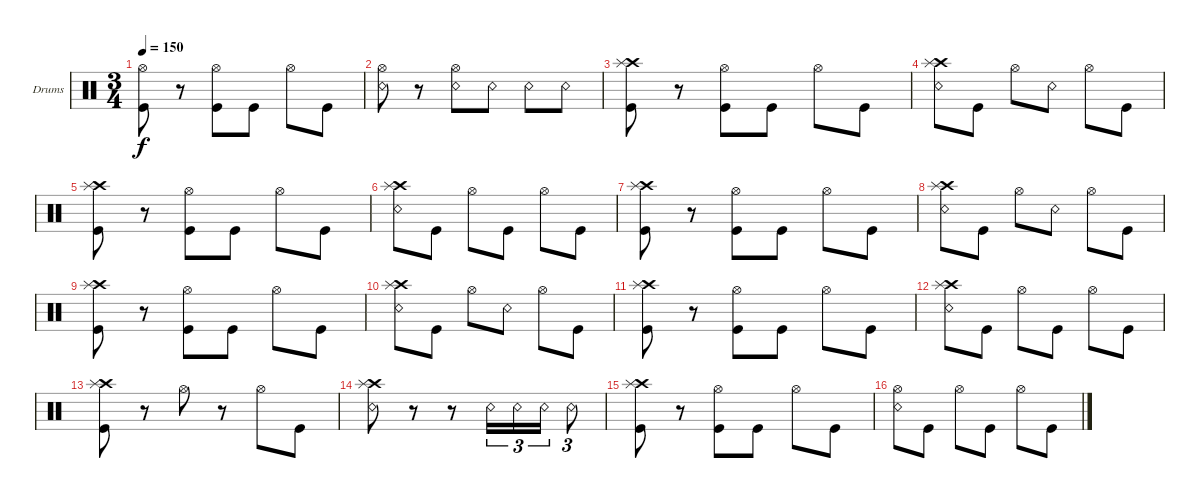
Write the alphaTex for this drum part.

\defaultSystemsLayout 4
\bracketExtendMode groupsimilarinstruments
\firstSystemTrackNameOrientation horizontal
\otherSystemsTrackNameOrientation horizontal
\track ("Scott" "Drums") {instrument percussion}
\staff {score}
\articulation defaults
\ts (3 4)
\tempo 150
\clef neutral
\scale
0.333333
\ks c
("Kick (hit)" "Hi-Hat (open)").8{dy f} r.8 ("Kick (hit)" "Hi-Hat (open)").8 "Kick (hit)".8 "Hi-Hat (open)".8 "Kick (hit)".8 |
\scale
0.333333 ("Snare (rim shot)" "Hi-Hat (open)").8 r.8 ("Snare (rim shot)" "Hi-Hat (open)").8 "Snare (rim shot)".8 "Snare (rim shot)".8 "Snare (rim shot)".8 |
\scale
0.333333 ("Kick (hit)" "Crash high (hit)" "Splash (hit)").8 r.8 ("Kick (hit)" "Hi-Hat (open)").8 "Kick (hit)".8 "Hi-Hat (open)".8 "Kick (hit)".8 |
\scale
0.333333 ("Snare (rim shot)" "Crash high (hit)" "Splash (hit)").8 "Kick (hit)".8 "Hi-Hat (open)".8 "Snare (rim shot)".8 "Hi-Hat (open)".8 "Kick (hit)".8 |
\scale
0.333333 ("Kick (hit)" "Crash high (hit)" "Splash (hit)").8 r.8 ("Kick (hit)" "Hi-Hat (open)").8 "Kick (hit)".8 "Hi-Hat (open)".8 "Kick (hit)".8 |
\scale
0.333333 ("Snare (rim shot)" "Crash high (hit)" "Splash (hit)").8 "Kick (hit)".8 "Hi-Hat (open)".8 "Kick (hit)".8 "Hi-Hat (open)".8 "Kick (hit)".8 |
\scale
0.333333 ("Kick (hit)" "Crash high (hit)" "Splash (hit)").8 r.8 ("Kick (hit)" "Hi-Hat (open)").8 "Kick (hit)".8 "Hi-Hat (open)".8 "Kick (hit)".8 |
\scale
0.333333 ("Snare (rim shot)" "Crash high (hit)" "Splash (hit)").8 "Kick (hit)".8 "Hi-Hat (open)".8 "Snare (rim shot)".8 "Hi-Hat (open)".8 "Kick (hit)".8 |
\scale
0.333333 ("Kick (hit)" "Crash high (hit)" "Splash (hit)").8 r.8 ("Kick (hit)" "Hi-Hat (open)").8 "Kick (hit)".8 "Hi-Hat (open)".8 "Kick (hit)".8 |
\scale
0.333333 ("Snare (rim shot)" "Crash high (hit)" "Splash (hit)").8 "Kick (hit)".8 "Hi-Hat (open)".8 "Snare (rim shot)".8 "Hi-Hat (open)".8 "Kick (hit)".8 |
\scale
0.333333 ("Kick (hit)" "Crash high (hit)" "Splash (hit)").8 r.8 ("Kick (hit)" "Hi-Hat (open)").8 "Kick (hit)".8 "Hi-Hat (open)".8 "Kick (hit)".8 |
\scale
0.333333 ("Snare (rim shot)" "Crash high (hit)" "Splash (hit)").8 "Kick (hit)".8 "Hi-Hat (open)".8 "Kick (hit)".8 "Hi-Hat (open)".8 "Kick (hit)".8 |
\scale
0.333333 ("Kick (hit)" "Crash high (hit)" "Splash (hit)").8 r.8 "Hi-Hat (open)".8 r.8 "Hi-Hat (open)".8 "Kick (hit)".8 |
\scale
0.333333 ("Snare (rim shot)" "Crash high (hit)" "Splash (hit)").8 r.8 r.8 "Snare (rim shot)".16{tu (3 2)} "Snare (rim shot)".16{tu (3 2)} "Snare (rim shot)".16{tu (3 2)} "Snare (rim shot)".8{tu (3 2)} |
\scale
0.333333 ("Kick (hit)" "Crash high (hit)" "Splash (hit)").8 r.8 ("Kick (hit)" "Hi-Hat (open)").8 "Kick (hit)".8 "Hi-Hat (open)".8 "Kick (hit)".8 |
\scale
0.333333 ("Snare (rim shot)" "Hi-Hat (open)").8 "Kick (hit)".8 "Hi-Hat (open)".8 "Kick (hit)".8 "Hi-Hat (open)".8 "Kick (hit)".8
